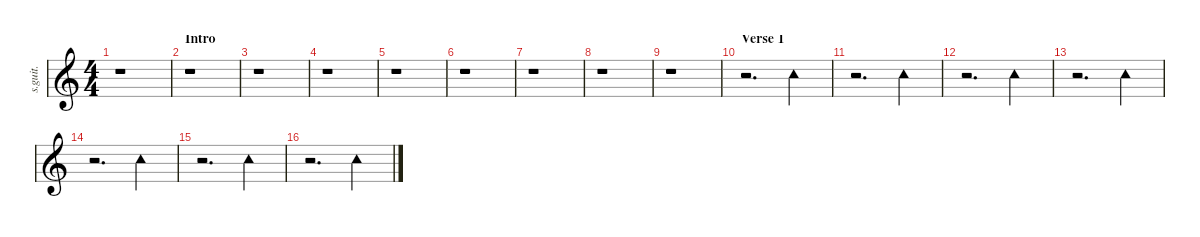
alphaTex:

\defaultSystemsLayout 4
\hideDynamics
\bracketExtendMode nobrackets
\track ("Tambourine" "s.guit.") {instrument percussion}
\staff {score}
\articulation defaults
\ts (4 4)
\beaming (8 2 2 2 2)
\tempo (136 hide)
\clef g2
\ks c
r.1{dy f} |
\section ("" "Intro")
r.1 |
r.1 |
r.1 |
r.1 |
r.1 |
r.1 |
r.1 |
r.1 |
\section ("" "Verse 1")
r.2{d} "Tambourine (hit)".4 |
r.2{d} "Tambourine (hit)".4 |
r.2{d} "Tambourine (hit)".4 |
r.2{d} "Tambourine (hit)".4 |
r.2{d} "Tambourine (hit)".4 |
r.2{d} "Tambourine (hit)".4 |
r.2{d} "Tambourine (hit)".4
